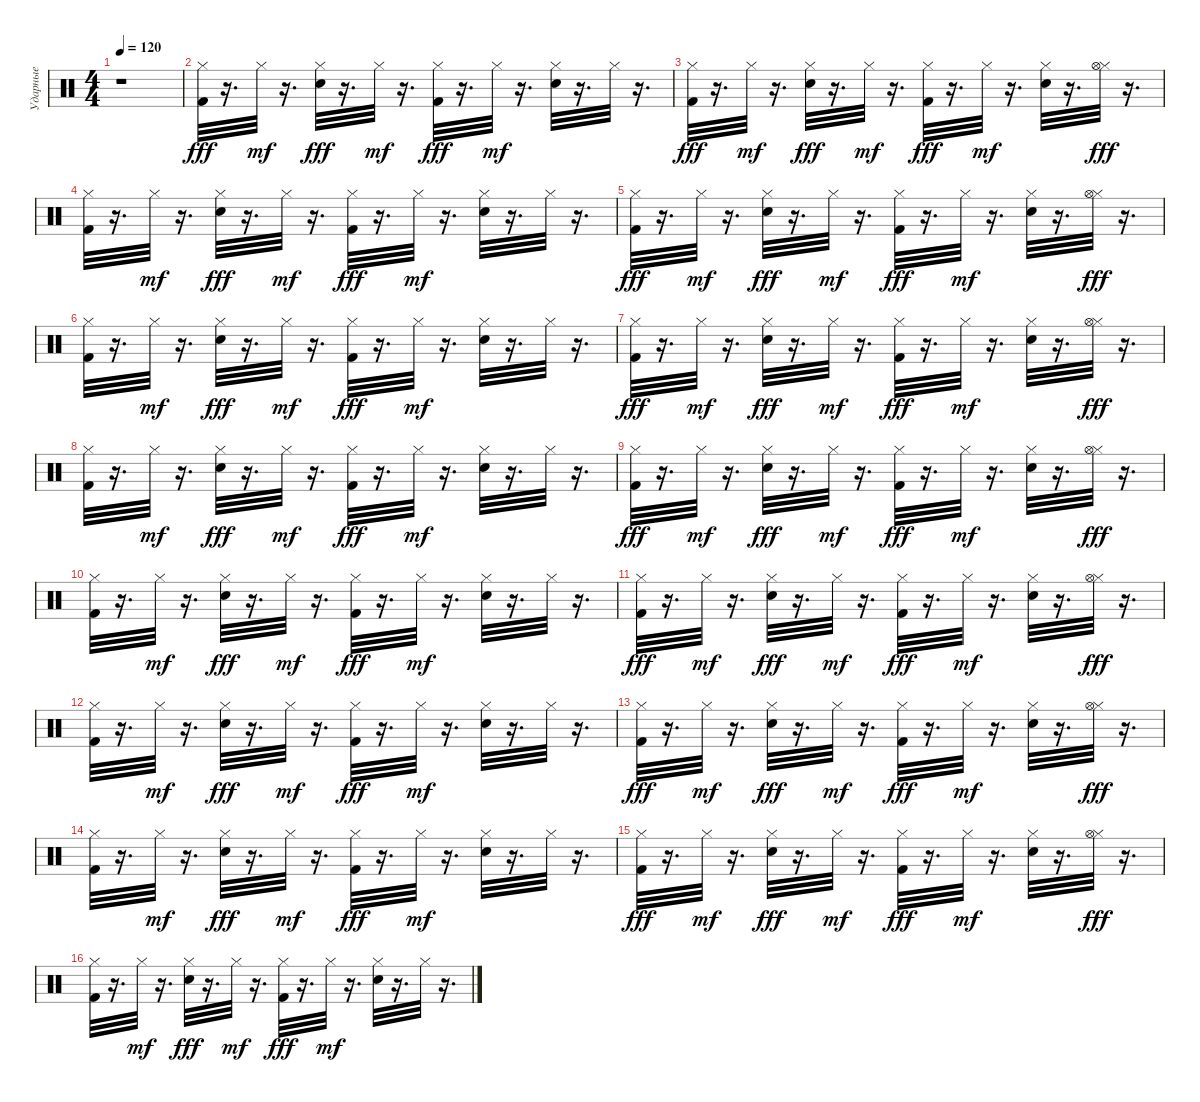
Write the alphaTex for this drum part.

\track ("Ударные" "Ударные") {instrument percussion}
\staff {score}
\articulation defaults
\ts (4 4)
\tempo 120
\clef neutral
\ks c
r.1{dy fff} |
("Hi-Hat (closed)" "Kick (hit) 2").32 r.16{d} "Hi-Hat (closed)".32{dy mf} r.16{d} ("Hi-Hat (closed)" "Snare (hit) 2").32{dy fff} r.16{d} "Hi-Hat (closed)".32{dy mf} r.16{d} ("Hi-Hat (closed)" "Kick (hit) 2").32{dy fff} r.16{d} "Hi-Hat (closed)".32{dy mf} r.16{d} ("Snare (hit) 2" "Hi-Hat (closed)").32 r.16{d} "Hi-Hat (closed)".32 r.16{d} |
("Hi-Hat (closed)" "Kick (hit) 2").32{dy fff} r.16{d} "Hi-Hat (closed)".32{dy mf} r.16{d} ("Hi-Hat (closed)" "Snare (hit) 2").32{dy fff} r.16{d} "Hi-Hat (closed)".32{dy mf} r.16{d} ("Hi-Hat (closed)" "Kick (hit) 2").32{dy fff} r.16{d} "Hi-Hat (closed)".32{dy mf} r.16{d} ("Snare (hit) 2" "Hi-Hat (closed)").32 r.16{d} ("Hi-Hat (closed)" "Hi-Hat (open)").32{dy fff} r.16{d} |
("Hi-Hat (closed)" "Kick (hit) 2").32 r.16{d} "Hi-Hat (closed)".32{dy mf} r.16{d} ("Hi-Hat (closed)" "Snare (hit) 2").32{dy fff} r.16{d} "Hi-Hat (closed)".32{dy mf} r.16{d} ("Hi-Hat (closed)" "Kick (hit) 2").32{dy fff} r.16{d} "Hi-Hat (closed)".32{dy mf} r.16{d} ("Snare (hit) 2" "Hi-Hat (closed)").32 r.16{d} "Hi-Hat (closed)".32 r.16{d} |
("Hi-Hat (closed)" "Kick (hit) 2").32{dy fff} r.16{d} "Hi-Hat (closed)".32{dy mf} r.16{d} ("Hi-Hat (closed)" "Snare (hit) 2").32{dy fff} r.16{d} "Hi-Hat (closed)".32{dy mf} r.16{d} ("Hi-Hat (closed)" "Kick (hit) 2").32{dy fff} r.16{d} "Hi-Hat (closed)".32{dy mf} r.16{d} ("Snare (hit) 2" "Hi-Hat (closed)").32 r.16{d} ("Hi-Hat (closed)" "Hi-Hat (open)").32{dy fff} r.16{d} |
("Hi-Hat (closed)" "Kick (hit) 2").32 r.16{d} "Hi-Hat (closed)".32{dy mf} r.16{d} ("Hi-Hat (closed)" "Snare (hit) 2").32{dy fff} r.16{d} "Hi-Hat (closed)".32{dy mf} r.16{d} ("Hi-Hat (closed)" "Kick (hit) 2").32{dy fff} r.16{d} "Hi-Hat (closed)".32{dy mf} r.16{d} ("Snare (hit) 2" "Hi-Hat (closed)").32 r.16{d} "Hi-Hat (closed)".32 r.16{d} |
("Hi-Hat (closed)" "Kick (hit) 2").32{dy fff} r.16{d} "Hi-Hat (closed)".32{dy mf} r.16{d} ("Hi-Hat (closed)" "Snare (hit) 2").32{dy fff} r.16{d} "Hi-Hat (closed)".32{dy mf} r.16{d} ("Hi-Hat (closed)" "Kick (hit) 2").32{dy fff} r.16{d} "Hi-Hat (closed)".32{dy mf} r.16{d} ("Snare (hit) 2" "Hi-Hat (closed)").32 r.16{d} ("Hi-Hat (closed)" "Hi-Hat (open)").32{dy fff} r.16{d} |
("Hi-Hat (closed)" "Kick (hit) 2").32 r.16{d} "Hi-Hat (closed)".32{dy mf} r.16{d} ("Hi-Hat (closed)" "Snare (hit) 2").32{dy fff} r.16{d} "Hi-Hat (closed)".32{dy mf} r.16{d} ("Hi-Hat (closed)" "Kick (hit) 2").32{dy fff} r.16{d} "Hi-Hat (closed)".32{dy mf} r.16{d} ("Snare (hit) 2" "Hi-Hat (closed)").32 r.16{d} "Hi-Hat (closed)".32 r.16{d} |
("Hi-Hat (closed)" "Kick (hit) 2").32{dy fff} r.16{d} "Hi-Hat (closed)".32{dy mf} r.16{d} ("Hi-Hat (closed)" "Snare (hit) 2").32{dy fff} r.16{d} "Hi-Hat (closed)".32{dy mf} r.16{d} ("Hi-Hat (closed)" "Kick (hit) 2").32{dy fff} r.16{d} "Hi-Hat (closed)".32{dy mf} r.16{d} ("Snare (hit) 2" "Hi-Hat (closed)").32 r.16{d} ("Hi-Hat (closed)" "Hi-Hat (open)").32{dy fff} r.16{d} |
("Hi-Hat (closed)" "Kick (hit) 2").32 r.16{d} "Hi-Hat (closed)".32{dy mf} r.16{d} ("Hi-Hat (closed)" "Snare (hit) 2").32{dy fff} r.16{d} "Hi-Hat (closed)".32{dy mf} r.16{d} ("Hi-Hat (closed)" "Kick (hit) 2").32{dy fff} r.16{d} "Hi-Hat (closed)".32{dy mf} r.16{d} ("Snare (hit) 2" "Hi-Hat (closed)").32 r.16{d} "Hi-Hat (closed)".32 r.16{d} |
("Hi-Hat (closed)" "Kick (hit) 2").32{dy fff} r.16{d} "Hi-Hat (closed)".32{dy mf} r.16{d} ("Hi-Hat (closed)" "Snare (hit) 2").32{dy fff} r.16{d} "Hi-Hat (closed)".32{dy mf} r.16{d} ("Hi-Hat (closed)" "Kick (hit) 2").32{dy fff} r.16{d} "Hi-Hat (closed)".32{dy mf} r.16{d} ("Snare (hit) 2" "Hi-Hat (closed)").32 r.16{d} ("Hi-Hat (closed)" "Hi-Hat (open)").32{dy fff} r.16{d} |
("Hi-Hat (closed)" "Kick (hit) 2").32 r.16{d} "Hi-Hat (closed)".32{dy mf} r.16{d} ("Hi-Hat (closed)" "Snare (hit) 2").32{dy fff} r.16{d} "Hi-Hat (closed)".32{dy mf} r.16{d} ("Hi-Hat (closed)" "Kick (hit) 2").32{dy fff} r.16{d} "Hi-Hat (closed)".32{dy mf} r.16{d} ("Snare (hit) 2" "Hi-Hat (closed)").32 r.16{d} "Hi-Hat (closed)".32 r.16{d} |
("Hi-Hat (closed)" "Kick (hit) 2").32{dy fff} r.16{d} "Hi-Hat (closed)".32{dy mf} r.16{d} ("Hi-Hat (closed)" "Snare (hit) 2").32{dy fff} r.16{d} "Hi-Hat (closed)".32{dy mf} r.16{d} ("Hi-Hat (closed)" "Kick (hit) 2").32{dy fff} r.16{d} "Hi-Hat (closed)".32{dy mf} r.16{d} ("Snare (hit) 2" "Hi-Hat (closed)").32 r.16{d} ("Hi-Hat (closed)" "Hi-Hat (open)").32{dy fff} r.16{d} |
("Hi-Hat (closed)" "Kick (hit) 2").32 r.16{d} "Hi-Hat (closed)".32{dy mf} r.16{d} ("Hi-Hat (closed)" "Snare (hit) 2").32{dy fff} r.16{d} "Hi-Hat (closed)".32{dy mf} r.16{d} ("Hi-Hat (closed)" "Kick (hit) 2").32{dy fff} r.16{d} "Hi-Hat (closed)".32{dy mf} r.16{d} ("Snare (hit) 2" "Hi-Hat (closed)").32 r.16{d} "Hi-Hat (closed)".32 r.16{d} |
("Hi-Hat (closed)" "Kick (hit) 2").32{dy fff} r.16{d} "Hi-Hat (closed)".32{dy mf} r.16{d} ("Hi-Hat (closed)" "Snare (hit) 2").32{dy fff} r.16{d} "Hi-Hat (closed)".32{dy mf} r.16{d} ("Hi-Hat (closed)" "Kick (hit) 2").32{dy fff} r.16{d} "Hi-Hat (closed)".32{dy mf} r.16{d} ("Snare (hit) 2" "Hi-Hat (closed)").32 r.16{d} ("Hi-Hat (closed)" "Hi-Hat (open)").32{dy fff} r.16{d} |
("Hi-Hat (closed)" "Kick (hit) 2").32 r.16{d} "Hi-Hat (closed)".32{dy mf} r.16{d} ("Hi-Hat (closed)" "Snare (hit) 2").32{dy fff} r.16{d} "Hi-Hat (closed)".32{dy mf} r.16{d} ("Hi-Hat (closed)" "Kick (hit) 2").32{dy fff} r.16{d} "Hi-Hat (closed)".32{dy mf} r.16{d} ("Snare (hit) 2" "Hi-Hat (closed)").32 r.16{d} "Hi-Hat (closed)".32 r.16{d}
